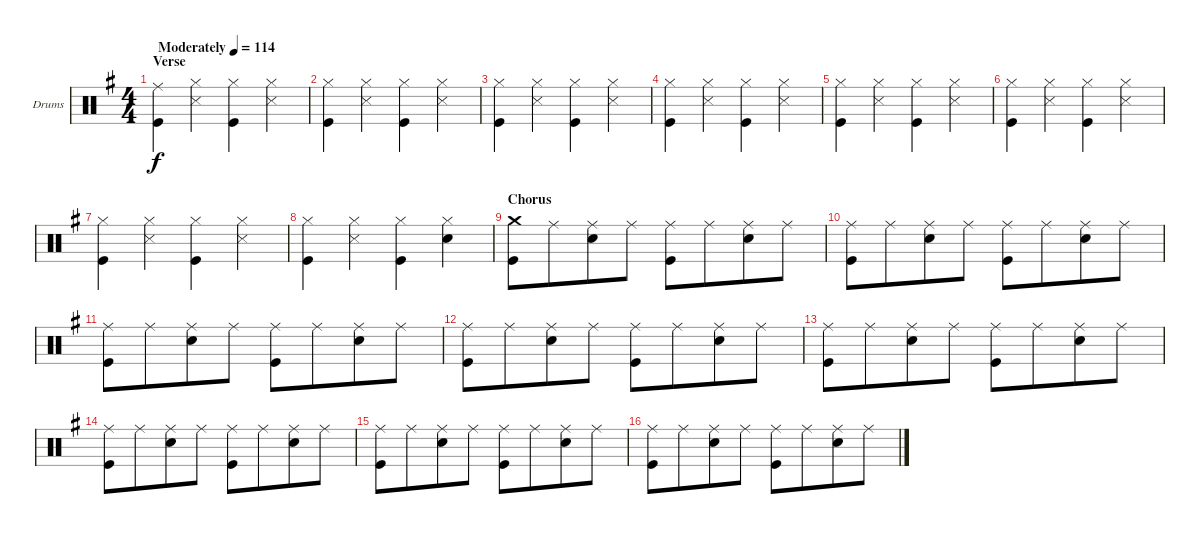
\bracketExtendMode groupsimilarinstruments
\firstSystemTrackNameOrientation horizontal
\otherSystemsTrackNameOrientation horizontal
\track ("Drumkit" "Drums") {instrument percussion}
\staff {score}
\articulation defaults
\ts (4 4)
\beaming (8 4 4)
\section ("" "Verse")
\tempo (114 "Moderately")
\clef neutral
\scale
1.07314
\ks g
("Ride (middle)" "Kick (hit)").4{dy f} ("Hi-Hat (closed)" "Snare (side stick) 3").4 ("Hi-Hat (closed)" "Kick (hit)").4 ("Hi-Hat (closed)" "Snare (side stick) 3").4 |
\scale
0.92686 ("Hi-Hat (closed)" "Kick (hit)").4 ("Hi-Hat (closed)" "Snare (side stick) 3").4 ("Hi-Hat (closed)" "Kick (hit)").4 ("Hi-Hat (closed)" "Snare (side stick) 3").4 |
\scale
1.04288 ("Hi-Hat (closed)" "Kick (hit)").4 ("Hi-Hat (closed)" "Snare (side stick) 3").4 ("Hi-Hat (closed)" "Kick (hit)").4 ("Hi-Hat (closed)" "Snare (side stick) 3").4 |
\scale
0.957125 ("Hi-Hat (closed)" "Kick (hit)").4 ("Hi-Hat (closed)" "Snare (side stick) 3").4 ("Hi-Hat (closed)" "Kick (hit)").4 ("Hi-Hat (closed)" "Snare (side stick) 3").4 |
\scale
1.04288 ("Hi-Hat (closed)" "Kick (hit)").4 ("Hi-Hat (closed)" "Snare (side stick) 3").4 ("Hi-Hat (closed)" "Kick (hit)").4 ("Hi-Hat (closed)" "Snare (side stick) 3").4 |
\scale
0.957125 ("Hi-Hat (closed)" "Kick (hit)").4 ("Hi-Hat (closed)" "Snare (side stick) 3").4 ("Hi-Hat (closed)" "Kick (hit)").4 ("Hi-Hat (closed)" "Snare (side stick) 3").4 |
\scale
1.04288 ("Hi-Hat (closed)" "Kick (hit)").4 ("Hi-Hat (closed)" "Snare (side stick) 3").4 ("Hi-Hat (closed)" "Kick (hit)").4 ("Hi-Hat (closed)" "Snare (side stick) 3").4 |
\scale
0.957125 ("Hi-Hat (closed)" "Kick (hit)").4 ("Hi-Hat (closed)" "Snare (side stick) 3").4 ("Hi-Hat (closed)" "Kick (hit)").4 ("Hi-Hat (closed)" "Snare (hit) 2").4 |
\section ("" "Chorus")
\scale
1.04288 ("Crash medium (hit)" "Kick (hit)").8 "Ride (middle)".8 ("Ride (middle)" "Snare (hit) 2").8 "Ride (middle)".8 ("Ride (middle)" "Kick (hit)").8 "Ride (middle)".8 ("Ride (middle)" "Snare (hit) 2").8 "Ride (middle)".8 |
\scale
0.957125 ("Ride (middle)" "Kick (hit)").8 "Ride (middle)".8 ("Ride (middle)" "Snare (hit) 2").8 "Ride (middle)".8 ("Ride (middle)" "Kick (hit)").8 "Ride (middle)".8 ("Ride (middle)" "Snare (hit) 2").8 "Ride (middle)".8 |
\scale
1.04288 ("Ride (middle)" "Kick (hit)").8 "Ride (middle)".8 ("Ride (middle)" "Snare (hit) 2").8 "Ride (middle)".8 ("Ride (middle)" "Kick (hit)").8 "Ride (middle)".8 ("Ride (middle)" "Snare (hit) 2").8 "Ride (middle)".8 |
\scale
0.957125 ("Ride (middle)" "Kick (hit)").8 "Ride (middle)".8 ("Ride (middle)" "Snare (hit) 2").8 "Ride (middle)".8 ("Ride (middle)" "Kick (hit)").8 "Ride (middle)".8 ("Ride (middle)" "Snare (hit) 2").8 "Ride (middle)".8 |
\scale
1.04288 ("Ride (middle)" "Kick (hit)").8 "Ride (middle)".8 ("Ride (middle)" "Snare (hit) 2").8 "Ride (middle)".8 ("Ride (middle)" "Kick (hit)").8 "Ride (middle)".8 ("Ride (middle)" "Snare (hit) 2").8 "Ride (middle)".8 |
\scale
0.957125 ("Ride (middle)" "Kick (hit)").8 "Ride (middle)".8 ("Ride (middle)" "Snare (hit) 2").8 "Ride (middle)".8 ("Ride (middle)" "Kick (hit)").8 "Ride (middle)".8 ("Ride (middle)" "Snare (hit) 2").8 "Ride (middle)".8 |
\scale
1.04288 ("Ride (middle)" "Kick (hit)").8 "Ride (middle)".8 ("Ride (middle)" "Snare (hit) 2").8 "Ride (middle)".8 ("Ride (middle)" "Kick (hit)").8 "Ride (middle)".8 ("Ride (middle)" "Snare (hit) 2").8 "Ride (middle)".8 |
\scale
0.957125 ("Ride (middle)" "Kick (hit)").8 "Ride (middle)".8 ("Ride (middle)" "Snare (hit) 2").8 "Ride (middle)".8 ("Ride (middle)" "Kick (hit)").8 "Ride (middle)".8 ("Ride (middle)" "Snare (hit) 2").8 "Ride (middle)".8
